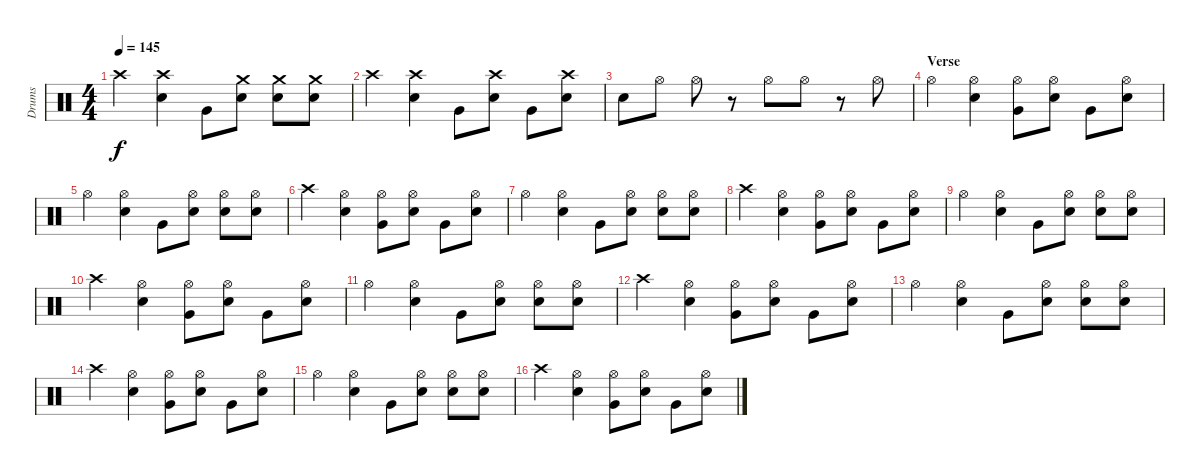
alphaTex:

\track ("Drums" "Drums") {instrument percussion}
\staff {score}
\articulation defaults
\ts (4 4)
\tempo 145
\clef neutral
\ks c "Crash high (hit)".4{dy f}
("Crash high (hit)" "Electric Snare (hit)").4 "Very Low Tom (hit)".8 ("Crash medium (hit)" "Electric Snare (hit)").8 ("Crash medium (hit)" "Electric Snare (hit)").8 ("Crash medium (hit)" "Electric Snare (hit)").8 |
"Crash high (hit)".4 ("Crash high (hit)" "Electric Snare (hit)").4 "Very Low Tom (hit)".8 ("Crash high (hit)" "Electric Snare (hit)").8 "Very Low Tom (hit)".8 ("Crash high (hit)" "Electric Snare (hit)").8 |
"Electric Snare (hit)".8 "Hi-Hat (open)".8 "Hi-Hat (open)".8 r.8 "Hi-Hat (open)".8 "Hi-Hat (open)".8 r.8 "Hi-Hat (open)".8 |
\section ("" "Verse")
"Hi-Hat (open)".4 ("Hi-Hat (open)" "Electric Snare (hit)").4 ("Hi-Hat (open)" "Very Low Tom (hit)").8 ("Hi-Hat (open)" "Electric Snare (hit)").8 "Very Low Tom (hit)".8 ("Hi-Hat (open)" "Electric Snare (hit)").8 |
"Hi-Hat (open)".4 ("Hi-Hat (open)" "Electric Snare (hit)").4 "Very Low Tom (hit)".8 ("Hi-Hat (open)" "Electric Snare (hit)").8 ("Hi-Hat (open)" "Electric Snare (hit)").8 ("Hi-Hat (open)" "Electric Snare (hit)").8 |
"Crash high (hit)".4 ("Hi-Hat (open)" "Electric Snare (hit)").4 ("Hi-Hat (open)" "Very Low Tom (hit)").8 ("Hi-Hat (open)" "Electric Snare (hit)").8 "Very Low Tom (hit)".8 ("Hi-Hat (open)" "Electric Snare (hit)").8 |
"Hi-Hat (open)".4 ("Hi-Hat (open)" "Electric Snare (hit)").4 "Very Low Tom (hit)".8 ("Hi-Hat (open)" "Electric Snare (hit)").8 ("Hi-Hat (open)" "Electric Snare (hit)").8 ("Hi-Hat (open)" "Electric Snare (hit)").8 |
"Crash high (hit)".4 ("Hi-Hat (open)" "Electric Snare (hit)").4 ("Hi-Hat (open)" "Very Low Tom (hit)").8 ("Hi-Hat (open)" "Electric Snare (hit)").8 "Very Low Tom (hit)".8 ("Hi-Hat (open)" "Electric Snare (hit)").8 |
"Hi-Hat (open)".4 ("Hi-Hat (open)" "Electric Snare (hit)").4 "Very Low Tom (hit)".8 ("Hi-Hat (open)" "Electric Snare (hit)").8 ("Hi-Hat (open)" "Electric Snare (hit)").8 ("Hi-Hat (open)" "Electric Snare (hit)").8 |
"Crash high (hit)".4 ("Hi-Hat (open)" "Electric Snare (hit)").4 ("Hi-Hat (open)" "Very Low Tom (hit)").8 ("Hi-Hat (open)" "Electric Snare (hit)").8 "Very Low Tom (hit)".8 ("Hi-Hat (open)" "Electric Snare (hit)").8 |
"Hi-Hat (open)".4 ("Hi-Hat (open)" "Electric Snare (hit)").4 "Very Low Tom (hit)".8 ("Hi-Hat (open)" "Electric Snare (hit)").8 ("Hi-Hat (open)" "Electric Snare (hit)").8 ("Hi-Hat (open)" "Electric Snare (hit)").8 |
"Crash high (hit)".4 ("Hi-Hat (open)" "Electric Snare (hit)").4 ("Hi-Hat (open)" "Very Low Tom (hit)").8 ("Hi-Hat (open)" "Electric Snare (hit)").8 "Very Low Tom (hit)".8 ("Hi-Hat (open)" "Electric Snare (hit)").8 |
"Hi-Hat (open)".4 ("Hi-Hat (open)" "Electric Snare (hit)").4 "Very Low Tom (hit)".8 ("Hi-Hat (open)" "Electric Snare (hit)").8 ("Hi-Hat (open)" "Electric Snare (hit)").8 ("Hi-Hat (open)" "Electric Snare (hit)").8 |
"Crash high (hit)".4 ("Hi-Hat (open)" "Electric Snare (hit)").4 ("Hi-Hat (open)" "Very Low Tom (hit)").8 ("Hi-Hat (open)" "Electric Snare (hit)").8 "Very Low Tom (hit)".8 ("Hi-Hat (open)" "Electric Snare (hit)").8 |
"Hi-Hat (open)".4 ("Hi-Hat (open)" "Electric Snare (hit)").4 "Very Low Tom (hit)".8 ("Hi-Hat (open)" "Electric Snare (hit)").8 ("Hi-Hat (open)" "Electric Snare (hit)").8 ("Hi-Hat (open)" "Electric Snare (hit)").8 |
"Crash high (hit)".4 ("Hi-Hat (open)" "Electric Snare (hit)").4 ("Hi-Hat (open)" "Very Low Tom (hit)").8 ("Hi-Hat (open)" "Electric Snare (hit)").8 "Very Low Tom (hit)".8 ("Hi-Hat (open)" "Electric Snare (hit)").8
